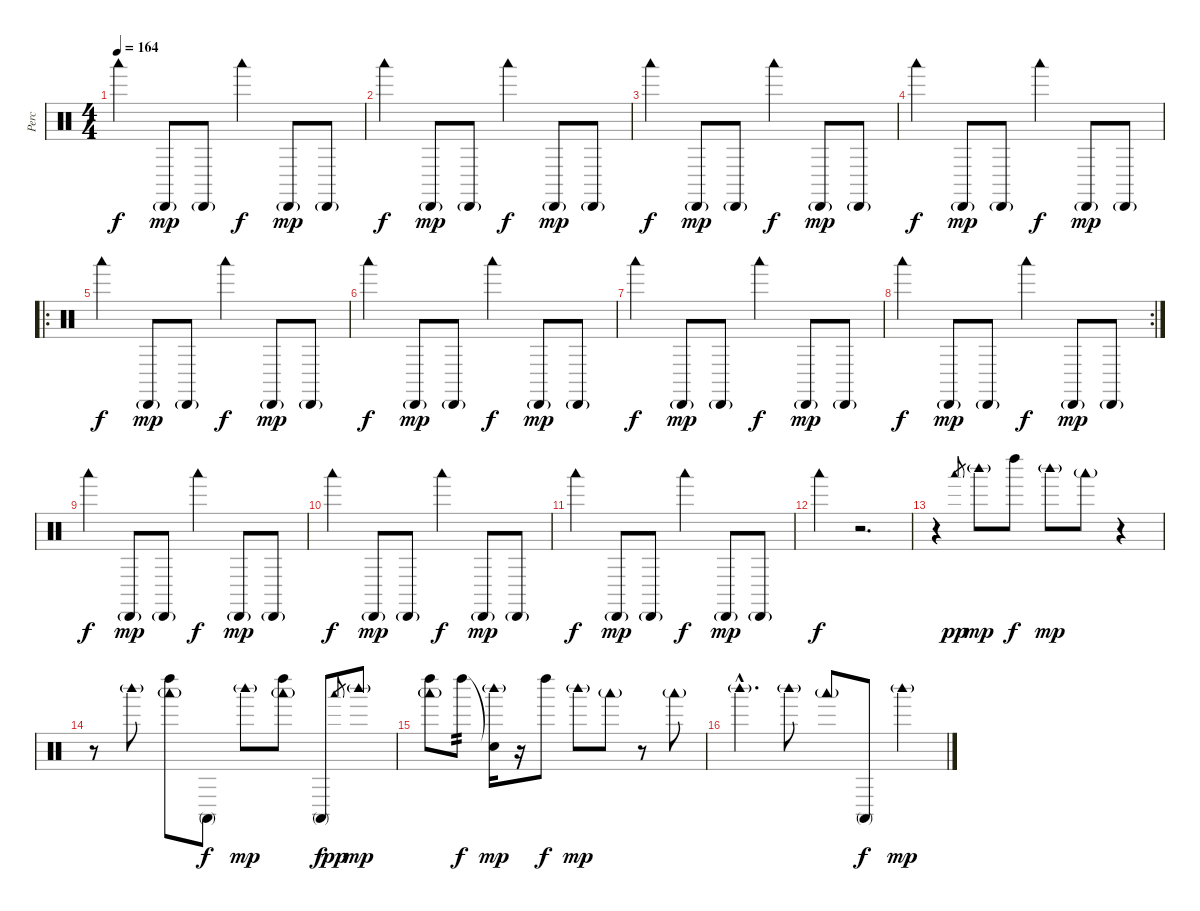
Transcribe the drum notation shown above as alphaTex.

\track ("Perc" "Perc") {instrument percussion}
\staff {score}
\articulation defaults
\ts (4 4)
\tempo 164
\clef neutral
\ks c "Woodblock low (hit)".4{dy f} "Cabasa (hit)"{g}.8{dy mp} "Cabasa (hit)"{g}.8 "Woodblock low (hit)".4{dy f} "Cabasa (hit)"{g}.8{dy mp} "Cabasa (hit)"{g}.8
|
"Woodblock low (hit)".4{dy f} "Cabasa (hit)"{g}.8{dy mp} "Cabasa (hit)"{g}.8 "Woodblock low (hit)".4{dy f} "Cabasa (hit)"{g}.8{dy mp} "Cabasa (hit)"{g}.8 |
"Woodblock low (hit)".4{dy f} "Cabasa (hit)"{g}.8{dy mp} "Cabasa (hit)"{g}.8 "Woodblock low (hit)".4{dy f} "Cabasa (hit)"{g}.8{dy mp} "Cabasa (hit)"{g}.8 |
"Woodblock low (hit)".4{dy f} "Cabasa (hit)"{g}.8{dy mp} "Cabasa (hit)"{g}.8 "Woodblock low (hit)".4{dy f} "Cabasa (hit)"{g}.8{dy mp} "Cabasa (hit)"{g}.8 |
\ro "Woodblock low (hit)".4{dy f} "Cabasa (hit)"{g}.8{dy mp} "Cabasa (hit)"{g}.8 "Woodblock low (hit)".4{dy f} "Cabasa (hit)"{g}.8{dy mp} "Cabasa (hit)"{g}.8
|
"Woodblock low (hit)".4{dy f} "Cabasa (hit)"{g}.8{dy mp} "Cabasa (hit)"{g}.8 "Woodblock low (hit)".4{dy f} "Cabasa (hit)"{g}.8{dy mp} "Cabasa (hit)"{g}.8 |
"Woodblock low (hit)".4{dy f} "Cabasa (hit)"{g}.8{dy mp} "Cabasa (hit)"{g}.8 "Woodblock low (hit)".4{dy f} "Cabasa (hit)"{g}.8{dy mp} "Cabasa (hit)"{g}.8 |
\rc 2 "Woodblock low (hit)".4{dy f} "Cabasa (hit)"{g}.8{dy mp} "Cabasa (hit)"{g}.8 "Woodblock low (hit)".4{dy f} "Cabasa (hit)"{g}.8{dy mp} "Cabasa (hit)"{g}.8
|
"Woodblock low (hit)".4{dy f} "Cabasa (hit)"{g}.8{dy mp} "Cabasa (hit)"{g}.8 "Woodblock low (hit)".4{dy f} "Cabasa (hit)"{g}.8{dy mp} "Cabasa (hit)"{g}.8 |
"Woodblock low (hit)".4{dy f} "Cabasa (hit)"{g}.8{dy mp} "Cabasa (hit)"{g}.8 "Woodblock low (hit)".4{dy f} "Cabasa (hit)"{g}.8{dy mp} "Cabasa (hit)"{g}.8 |
"Woodblock low (hit)".4{dy f} "Cabasa (hit)"{g}.8{dy mp} "Cabasa (hit)"{g}.8 "Woodblock low (hit)".4{dy f} "Cabasa (hit)"{g}.8{dy mp} "Cabasa (hit)"{g}.8 |
"Woodblock low (hit)".4{dy f} r.2{d} |
r.4 "Woodblock low (hit)".8{gr dy pp} "Woodblock high (hit)"{g}.8{dy mp} "Left Maraca (hit)".8{dy f} "Woodblock high (hit)"{g}.8{dy mp} "Woodblock low (hit)"{g}.8 r.4 |
r.8 "Woodblock high (hit)"{g}.8 ("Left Maraca (hit)" "Woodblock low (hit)"{g}).8 "Conga high (mute)".8{dy f} "Woodblock high (hit)"{g}.8{dy mp} ("Left Maraca (hit)" "Woodblock low (hit)"{g}).8 "Conga high (mute)".8{dy f} "Woodblock low (hit)".8{gr dy pp} "Woodblock high (hit)"{g}.8{dy mp} |
("Left Maraca (hit)" "Woodblock low (hit)"{g}).8 "Left Maraca (hit)".8{tp 2 dy f} ("Snare (hit)"{t} "Woodblock high (hit)"{g}).16{dy mp} r.16 "Left Maraca (hit)".8{dy f} "Woodblock high (hit)"{g}.8{dy mp} "Woodblock low (hit)"{g}.8 r.8 "Woodblock low (hit)"{g}.8 |
"Woodblock high (hit)"{g hac}.4{d} "Woodblock high (hit)"{g}.8 "Woodblock low (hit)"{g}.8 "Conga high (mute)".8{dy f} "Woodblock high (hit)"{g}.4{dy mp}
